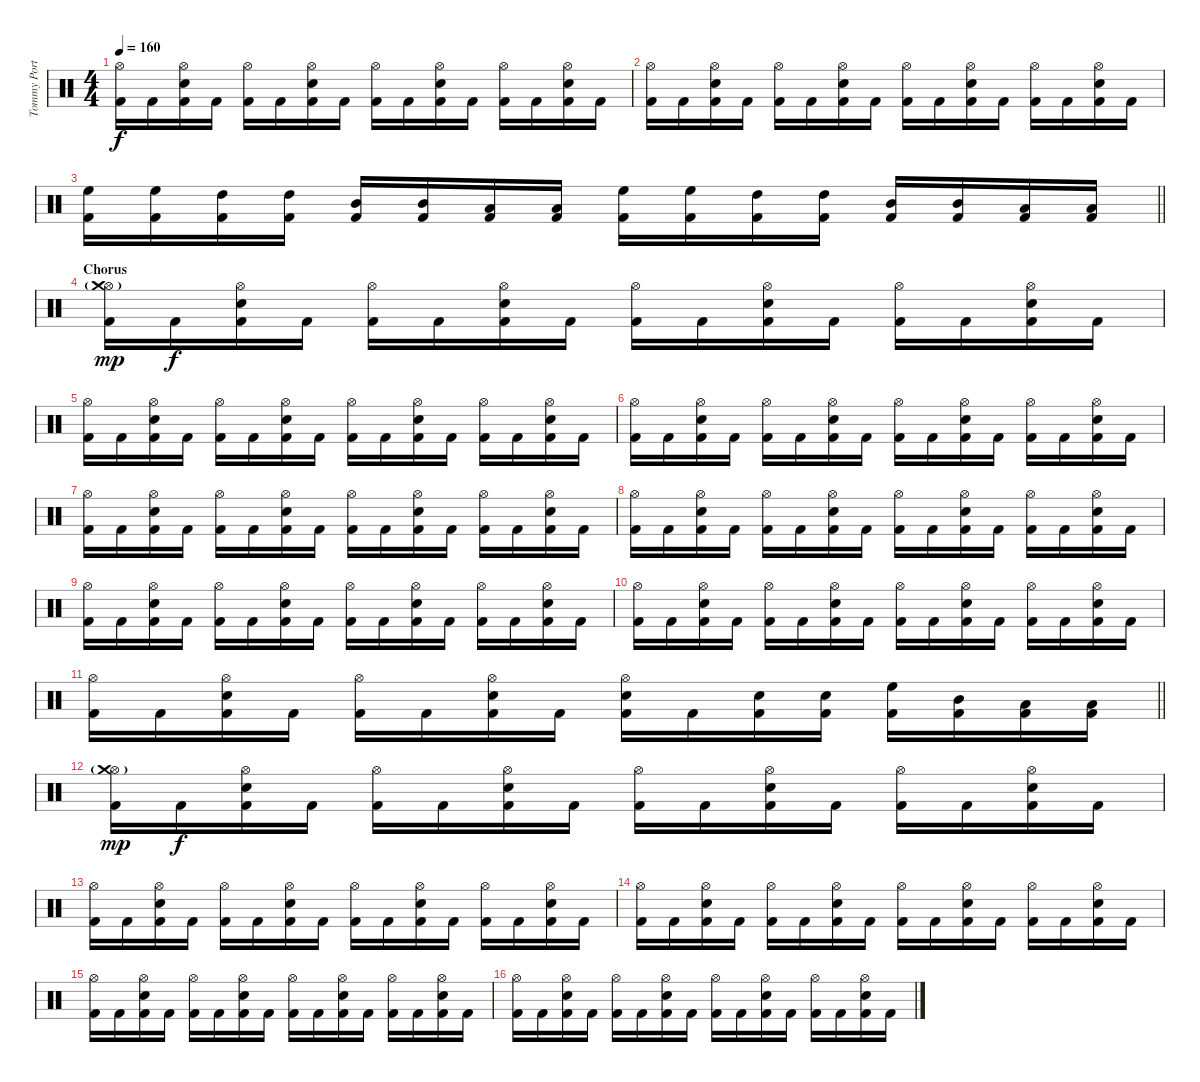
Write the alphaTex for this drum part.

\track ("Tommy Portino" "Tommy Port") {instrument percussion}
\staff {score}
\articulation defaults
\ts (4 4)
\tempo 160
\clef neutral
\ks c
("Hi-Hat (open)" "Kick (hit) 2").16{dy f} "Kick (hit) 2".16 ("Hi-Hat (open)" "Snare (hit) 2" "Kick (hit) 2").16 "Kick (hit) 2".16 ("Hi-Hat (open)" "Kick (hit) 2").16 "Kick (hit) 2".16 ("Hi-Hat (open)" "Snare (hit) 2" "Kick (hit) 2").16 "Kick (hit) 2".16 ("Hi-Hat (open)" "Kick (hit) 2").16 "Kick (hit) 2".16 ("Hi-Hat (open)" "Snare (hit) 2" "Kick (hit) 2").16 "Kick (hit) 2".16 ("Hi-Hat (open)" "Kick (hit) 2").16 "Kick (hit) 2".16 ("Hi-Hat (open)" "Snare (hit) 2" "Kick (hit) 2").16 "Kick (hit) 2".16 |
("Hi-Hat (open)" "Kick (hit) 2").16 "Kick (hit) 2".16 ("Hi-Hat (open)" "Snare (hit) 2" "Kick (hit) 2").16 "Kick (hit) 2".16 ("Hi-Hat (open)" "Kick (hit) 2").16 "Kick (hit) 2".16 ("Hi-Hat (open)" "Snare (hit) 2" "Kick (hit) 2").16 "Kick (hit) 2".16 ("Hi-Hat (open)" "Kick (hit) 2").16 "Kick (hit) 2".16 ("Hi-Hat (open)" "Snare (hit) 2" "Kick (hit) 2").16 "Kick (hit) 2".16 ("Hi-Hat (open)" "Kick (hit) 2").16 "Kick (hit) 2".16 ("Hi-Hat (open)" "Snare (hit) 2" "Kick (hit) 2").16 "Kick (hit) 2".16 |
\barLineRight lightlight
("High Floor Tom (hit)" "Kick (hit) 2").16 ("High Floor Tom (hit)" "Kick (hit) 2").16 ("High Tom (hit)" "Kick (hit) 2").16 ("High Tom (hit)" "Kick (hit) 2").16 ("Mid Tom (hit)" "Kick (hit) 2").16 ("Mid Tom (hit)" "Kick (hit) 2").16 ("Low Tom (hit)" "Kick (hit) 2").16 ("Low Tom (hit)" "Kick (hit) 2").16 ("High Floor Tom (hit)" "Kick (hit) 2").16 ("High Floor Tom (hit)" "Kick (hit) 2").16 ("High Tom (hit)" "Kick (hit) 2").16 ("High Tom (hit)" "Kick (hit) 2").16 ("Mid Tom (hit)" "Kick (hit) 2").16 ("Mid Tom (hit)" "Kick (hit) 2").16 ("Low Tom (hit)" "Kick (hit) 2").16 ("Low Tom (hit)" "Kick (hit) 2").16 |
\section ("" "Chorus")
("Hi-Hat (open)"{g} "Crash medium (hit)" "Kick (hit) 2").16{dy mp} "Kick (hit) 2".16{dy f} ("Hi-Hat (open)" "Snare (hit) 2" "Kick (hit) 2").16 "Kick (hit) 2".16 ("Hi-Hat (open)" "Kick (hit) 2").16 "Kick (hit) 2".16 ("Hi-Hat (open)" "Snare (hit) 2" "Kick (hit) 2").16 "Kick (hit) 2".16 ("Hi-Hat (open)" "Kick (hit) 2").16 "Kick (hit) 2".16 ("Hi-Hat (open)" "Snare (hit) 2" "Kick (hit) 2").16 "Kick (hit) 2".16 ("Hi-Hat (open)" "Kick (hit) 2").16 "Kick (hit) 2".16 ("Hi-Hat (open)" "Snare (hit) 2" "Kick (hit) 2").16 "Kick (hit) 2".16 |
("Hi-Hat (open)" "Kick (hit) 2").16 "Kick (hit) 2".16 ("Hi-Hat (open)" "Snare (hit) 2" "Kick (hit) 2").16 "Kick (hit) 2".16 ("Hi-Hat (open)" "Kick (hit) 2").16 "Kick (hit) 2".16 ("Hi-Hat (open)" "Snare (hit) 2" "Kick (hit) 2").16 "Kick (hit) 2".16 ("Hi-Hat (open)" "Kick (hit) 2").16 "Kick (hit) 2".16 ("Hi-Hat (open)" "Snare (hit) 2" "Kick (hit) 2").16 "Kick (hit) 2".16 ("Hi-Hat (open)" "Kick (hit) 2").16 "Kick (hit) 2".16 ("Hi-Hat (open)" "Snare (hit) 2" "Kick (hit) 2").16 "Kick (hit) 2".16 |
("Hi-Hat (open)" "Kick (hit) 2").16 "Kick (hit) 2".16 ("Hi-Hat (open)" "Snare (hit) 2" "Kick (hit) 2").16 "Kick (hit) 2".16 ("Hi-Hat (open)" "Kick (hit) 2").16 "Kick (hit) 2".16 ("Hi-Hat (open)" "Snare (hit) 2" "Kick (hit) 2").16 "Kick (hit) 2".16 ("Hi-Hat (open)" "Kick (hit) 2").16 "Kick (hit) 2".16 ("Hi-Hat (open)" "Snare (hit) 2" "Kick (hit) 2").16 "Kick (hit) 2".16 ("Hi-Hat (open)" "Kick (hit) 2").16 "Kick (hit) 2".16 ("Hi-Hat (open)" "Snare (hit) 2" "Kick (hit) 2").16 "Kick (hit) 2".16 |
("Hi-Hat (open)" "Kick (hit) 2").16 "Kick (hit) 2".16 ("Hi-Hat (open)" "Snare (hit) 2" "Kick (hit) 2").16 "Kick (hit) 2".16 ("Hi-Hat (open)" "Kick (hit) 2").16 "Kick (hit) 2".16 ("Hi-Hat (open)" "Snare (hit) 2" "Kick (hit) 2").16 "Kick (hit) 2".16 ("Hi-Hat (open)" "Kick (hit) 2").16 "Kick (hit) 2".16 ("Hi-Hat (open)" "Snare (hit) 2" "Kick (hit) 2").16 "Kick (hit) 2".16 ("Hi-Hat (open)" "Kick (hit) 2").16 "Kick (hit) 2".16 ("Hi-Hat (open)" "Snare (hit) 2" "Kick (hit) 2").16 "Kick (hit) 2".16 |
("Hi-Hat (open)" "Kick (hit) 2").16 "Kick (hit) 2".16 ("Hi-Hat (open)" "Snare (hit) 2" "Kick (hit) 2").16 "Kick (hit) 2".16 ("Hi-Hat (open)" "Kick (hit) 2").16 "Kick (hit) 2".16 ("Hi-Hat (open)" "Snare (hit) 2" "Kick (hit) 2").16 "Kick (hit) 2".16 ("Hi-Hat (open)" "Kick (hit) 2").16 "Kick (hit) 2".16 ("Hi-Hat (open)" "Snare (hit) 2" "Kick (hit) 2").16 "Kick (hit) 2".16 ("Hi-Hat (open)" "Kick (hit) 2").16 "Kick (hit) 2".16 ("Hi-Hat (open)" "Snare (hit) 2" "Kick (hit) 2").16 "Kick (hit) 2".16 |
("Hi-Hat (open)" "Kick (hit) 2").16 "Kick (hit) 2".16 ("Hi-Hat (open)" "Snare (hit) 2" "Kick (hit) 2").16 "Kick (hit) 2".16 ("Hi-Hat (open)" "Kick (hit) 2").16 "Kick (hit) 2".16 ("Hi-Hat (open)" "Snare (hit) 2" "Kick (hit) 2").16 "Kick (hit) 2".16 ("Hi-Hat (open)" "Kick (hit) 2").16 "Kick (hit) 2".16 ("Hi-Hat (open)" "Snare (hit) 2" "Kick (hit) 2").16 "Kick (hit) 2".16 ("Hi-Hat (open)" "Kick (hit) 2").16 "Kick (hit) 2".16 ("Hi-Hat (open)" "Snare (hit) 2" "Kick (hit) 2").16 "Kick (hit) 2".16 |
("Hi-Hat (open)" "Kick (hit) 2").16 "Kick (hit) 2".16 ("Hi-Hat (open)" "Snare (hit) 2" "Kick (hit) 2").16 "Kick (hit) 2".16 ("Hi-Hat (open)" "Kick (hit) 2").16 "Kick (hit) 2".16 ("Hi-Hat (open)" "Snare (hit) 2" "Kick (hit) 2").16 "Kick (hit) 2".16 ("Hi-Hat (open)" "Kick (hit) 2").16 "Kick (hit) 2".16 ("Hi-Hat (open)" "Snare (hit) 2" "Kick (hit) 2").16 "Kick (hit) 2".16 ("Hi-Hat (open)" "Kick (hit) 2").16 "Kick (hit) 2".16 ("Hi-Hat (open)" "Snare (hit) 2" "Kick (hit) 2").16 "Kick (hit) 2".16 |
\barLineRight lightlight
("Hi-Hat (open)" "Kick (hit) 2").16 "Kick (hit) 2".16 ("Hi-Hat (open)" "Snare (hit) 2" "Kick (hit) 2").16 "Kick (hit) 2".16 ("Hi-Hat (open)" "Kick (hit) 2").16 "Kick (hit) 2".16 ("Hi-Hat (open)" "Snare (hit) 2" "Kick (hit) 2").16 "Kick (hit) 2".16 ("Hi-Hat (open)" "Snare (hit) 2" "Kick (hit) 2").16 "Kick (hit) 2".16 ("Snare (hit) 2" "Kick (hit) 2").16 ("Snare (hit) 2" "Kick (hit) 2").16 ("High Floor Tom (hit)" "Kick (hit) 2").16 ("Mid Tom (hit)" "Kick (hit) 2").16 ("Low Tom (hit)" "Kick (hit) 2").16 ("Low Tom (hit)" "Kick (hit) 2").16 |
("Hi-Hat (open)"{g} "Crash medium (hit)" "Kick (hit) 2").16{dy mp} "Kick (hit) 2".16{dy f} ("Hi-Hat (open)" "Snare (hit) 2" "Kick (hit) 2").16 "Kick (hit) 2".16 ("Hi-Hat (open)" "Kick (hit) 2").16 "Kick (hit) 2".16 ("Hi-Hat (open)" "Snare (hit) 2" "Kick (hit) 2").16 "Kick (hit) 2".16 ("Hi-Hat (open)" "Kick (hit) 2").16 "Kick (hit) 2".16 ("Hi-Hat (open)" "Snare (hit) 2" "Kick (hit) 2").16 "Kick (hit) 2".16 ("Hi-Hat (open)" "Kick (hit) 2").16 "Kick (hit) 2".16 ("Hi-Hat (open)" "Snare (hit) 2" "Kick (hit) 2").16 "Kick (hit) 2".16 |
("Hi-Hat (open)" "Kick (hit) 2").16 "Kick (hit) 2".16 ("Hi-Hat (open)" "Snare (hit) 2" "Kick (hit) 2").16 "Kick (hit) 2".16 ("Hi-Hat (open)" "Kick (hit) 2").16 "Kick (hit) 2".16 ("Hi-Hat (open)" "Snare (hit) 2" "Kick (hit) 2").16 "Kick (hit) 2".16 ("Hi-Hat (open)" "Kick (hit) 2").16 "Kick (hit) 2".16 ("Hi-Hat (open)" "Snare (hit) 2" "Kick (hit) 2").16 "Kick (hit) 2".16 ("Hi-Hat (open)" "Kick (hit) 2").16 "Kick (hit) 2".16 ("Hi-Hat (open)" "Snare (hit) 2" "Kick (hit) 2").16 "Kick (hit) 2".16 |
("Hi-Hat (open)" "Kick (hit) 2").16 "Kick (hit) 2".16 ("Hi-Hat (open)" "Snare (hit) 2" "Kick (hit) 2").16 "Kick (hit) 2".16 ("Hi-Hat (open)" "Kick (hit) 2").16 "Kick (hit) 2".16 ("Hi-Hat (open)" "Snare (hit) 2" "Kick (hit) 2").16 "Kick (hit) 2".16 ("Hi-Hat (open)" "Kick (hit) 2").16 "Kick (hit) 2".16 ("Hi-Hat (open)" "Snare (hit) 2" "Kick (hit) 2").16 "Kick (hit) 2".16 ("Hi-Hat (open)" "Kick (hit) 2").16 "Kick (hit) 2".16 ("Hi-Hat (open)" "Snare (hit) 2" "Kick (hit) 2").16 "Kick (hit) 2".16 |
("Hi-Hat (open)" "Kick (hit) 2").16 "Kick (hit) 2".16 ("Hi-Hat (open)" "Snare (hit) 2" "Kick (hit) 2").16 "Kick (hit) 2".16 ("Hi-Hat (open)" "Kick (hit) 2").16 "Kick (hit) 2".16 ("Hi-Hat (open)" "Snare (hit) 2" "Kick (hit) 2").16 "Kick (hit) 2".16 ("Hi-Hat (open)" "Kick (hit) 2").16 "Kick (hit) 2".16 ("Hi-Hat (open)" "Snare (hit) 2" "Kick (hit) 2").16 "Kick (hit) 2".16 ("Hi-Hat (open)" "Kick (hit) 2").16 "Kick (hit) 2".16 ("Hi-Hat (open)" "Snare (hit) 2" "Kick (hit) 2").16 "Kick (hit) 2".16 |
("Hi-Hat (open)" "Kick (hit) 2").16 "Kick (hit) 2".16 ("Hi-Hat (open)" "Snare (hit) 2" "Kick (hit) 2").16 "Kick (hit) 2".16 ("Hi-Hat (open)" "Kick (hit) 2").16 "Kick (hit) 2".16 ("Hi-Hat (open)" "Snare (hit) 2" "Kick (hit) 2").16 "Kick (hit) 2".16 ("Hi-Hat (open)" "Kick (hit) 2").16 "Kick (hit) 2".16 ("Hi-Hat (open)" "Snare (hit) 2" "Kick (hit) 2").16 "Kick (hit) 2".16 ("Hi-Hat (open)" "Kick (hit) 2").16 "Kick (hit) 2".16 ("Hi-Hat (open)" "Snare (hit) 2" "Kick (hit) 2").16 "Kick (hit) 2".16
